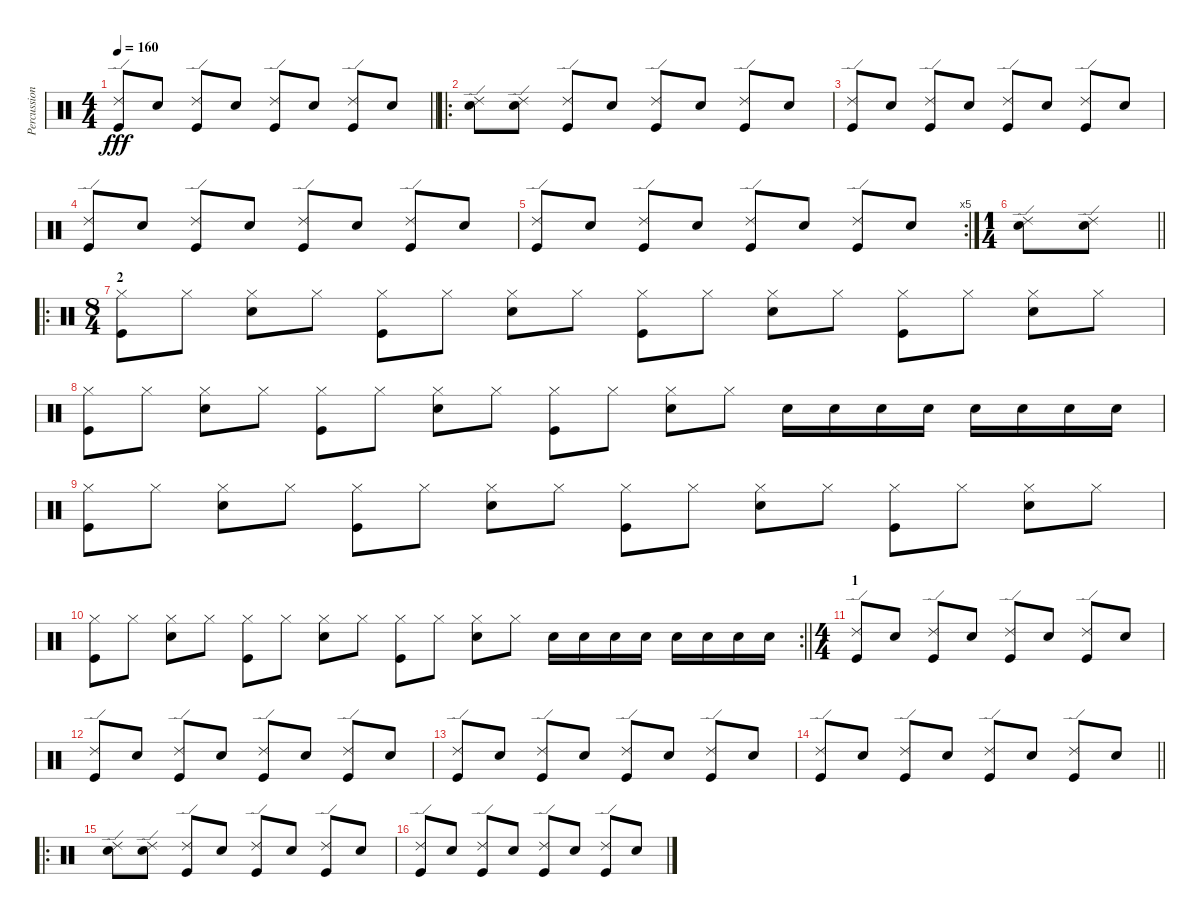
\track ("Percussion" "Percussion") {instrument percussion}
\staff {score}
\articulation defaults
\ts (4 4)
\tempo 160
\clef neutral
\barLineRight lightlight
\ks c
("Ride (edge) 2" "Kick (hit)").8{dy fff} "Snare (hit) 2".8 ("Ride (edge) 2" "Kick (hit)").8 "Snare (hit) 2".8 ("Ride (edge) 2" "Kick (hit)").8 "Snare (hit) 2".8 ("Ride (edge) 2" "Kick (hit)").8 "Snare (hit) 2".8 |
\ro
("Ride (edge) 2" "Snare (hit) 2").8 ("Ride (edge) 2" "Snare (hit) 2").8 ("Ride (edge) 2" "Kick (hit)").8 "Snare (hit) 2".8 ("Ride (edge) 2" "Kick (hit)").8 "Snare (hit) 2".8 ("Ride (edge) 2" "Kick (hit)").8 "Snare (hit) 2".8 |
("Ride (edge) 2" "Kick (hit)").8 "Snare (hit) 2".8 ("Ride (edge) 2" "Kick (hit)").8 "Snare (hit) 2".8 ("Ride (edge) 2" "Kick (hit)").8 "Snare (hit) 2".8 ("Ride (edge) 2" "Kick (hit)").8 "Snare (hit) 2".8 |
("Ride (edge) 2" "Kick (hit)").8 "Snare (hit) 2".8 ("Ride (edge) 2" "Kick (hit)").8 "Snare (hit) 2".8 ("Ride (edge) 2" "Kick (hit)").8 "Snare (hit) 2".8 ("Ride (edge) 2" "Kick (hit)").8 "Snare (hit) 2".8 |
\rc 5
("Ride (edge) 2" "Kick (hit)").8 "Snare (hit) 2".8 ("Ride (edge) 2" "Kick (hit)").8 "Snare (hit) 2".8 ("Ride (edge) 2" "Kick (hit)").8 "Snare (hit) 2".8 ("Ride (edge) 2" "Kick (hit)").8 "Snare (hit) 2".8 |
\ts (1 4)
\barLineRight lightlight
("Ride (edge) 2" "Snare (hit) 2").8 ("Ride (edge) 2" "Snare (hit) 2").8 |
\ro
\ts (8 4)
\section ("" "2")
("Hi-Hat (closed)" "Kick (hit)").8 "Hi-Hat (closed)".8 ("Hi-Hat (closed)" "Snare (hit) 2").8 "Hi-Hat (closed)".8 ("Hi-Hat (closed)" "Kick (hit)").8 "Hi-Hat (closed)".8 ("Hi-Hat (closed)" "Snare (hit) 2").8 "Hi-Hat (closed)".8 ("Hi-Hat (closed)" "Kick (hit)").8 "Hi-Hat (closed)".8 ("Hi-Hat (closed)" "Snare (hit) 2").8 "Hi-Hat (closed)".8 ("Hi-Hat (closed)" "Kick (hit)").8 "Hi-Hat (closed)".8 ("Hi-Hat (closed)" "Snare (hit) 2").8 "Hi-Hat (closed)".8 |
("Hi-Hat (closed)" "Kick (hit)").8 "Hi-Hat (closed)".8 ("Hi-Hat (closed)" "Snare (hit) 2").8 "Hi-Hat (closed)".8 ("Hi-Hat (closed)" "Kick (hit)").8 "Hi-Hat (closed)".8 ("Hi-Hat (closed)" "Snare (hit) 2").8 "Hi-Hat (closed)".8 ("Hi-Hat (closed)" "Kick (hit)").8 "Hi-Hat (closed)".8 ("Hi-Hat (closed)" "Snare (hit) 2").8 "Hi-Hat (closed)".8 "Snare (hit) 2".16 "Snare (hit) 2".16 "Snare (hit) 2".16 "Snare (hit) 2".16 "Snare (hit) 2".16 "Snare (hit) 2".16 "Snare (hit) 2".16 "Snare (hit) 2".16 |
("Hi-Hat (closed)" "Kick (hit)").8 "Hi-Hat (closed)".8 ("Hi-Hat (closed)" "Snare (hit) 2").8 "Hi-Hat (closed)".8 ("Hi-Hat (closed)" "Kick (hit)").8 "Hi-Hat (closed)".8 ("Hi-Hat (closed)" "Snare (hit) 2").8 "Hi-Hat (closed)".8 ("Hi-Hat (closed)" "Kick (hit)").8 "Hi-Hat (closed)".8 ("Hi-Hat (closed)" "Snare (hit) 2").8 "Hi-Hat (closed)".8 ("Hi-Hat (closed)" "Kick (hit)").8 "Hi-Hat (closed)".8 ("Hi-Hat (closed)" "Snare (hit) 2").8 "Hi-Hat (closed)".8 |
\rc 2
\barLineRight lightlight
("Hi-Hat (closed)" "Kick (hit)").8 "Hi-Hat (closed)".8 ("Hi-Hat (closed)" "Snare (hit) 2").8 "Hi-Hat (closed)".8 ("Hi-Hat (closed)" "Kick (hit)").8 "Hi-Hat (closed)".8 ("Hi-Hat (closed)" "Snare (hit) 2").8 "Hi-Hat (closed)".8 ("Hi-Hat (closed)" "Kick (hit)").8 "Hi-Hat (closed)".8 ("Hi-Hat (closed)" "Snare (hit) 2").8 "Hi-Hat (closed)".8 "Snare (hit) 2".16 "Snare (hit) 2".16 "Snare (hit) 2".16 "Snare (hit) 2".16 "Snare (hit) 2".16 "Snare (hit) 2".16 "Snare (hit) 2".16 "Snare (hit) 2".16 |
\ts (4 4)
\section ("" "1")
("Ride (edge) 2" "Kick (hit)").8 "Snare (hit) 2".8 ("Ride (edge) 2" "Kick (hit)").8 "Snare (hit) 2".8 ("Ride (edge) 2" "Kick (hit)").8 "Snare (hit) 2".8 ("Ride (edge) 2" "Kick (hit)").8 "Snare (hit) 2".8 |
("Ride (edge) 2" "Kick (hit)").8 "Snare (hit) 2".8 ("Ride (edge) 2" "Kick (hit)").8 "Snare (hit) 2".8 ("Ride (edge) 2" "Kick (hit)").8 "Snare (hit) 2".8 ("Ride (edge) 2" "Kick (hit)").8 "Snare (hit) 2".8 |
("Ride (edge) 2" "Kick (hit)").8 "Snare (hit) 2".8 ("Ride (edge) 2" "Kick (hit)").8 "Snare (hit) 2".8 ("Ride (edge) 2" "Kick (hit)").8 "Snare (hit) 2".8 ("Ride (edge) 2" "Kick (hit)").8 "Snare (hit) 2".8 |
\barLineRight lightlight
("Ride (edge) 2" "Kick (hit)").8 "Snare (hit) 2".8 ("Ride (edge) 2" "Kick (hit)").8 "Snare (hit) 2".8 ("Ride (edge) 2" "Kick (hit)").8 "Snare (hit) 2".8 ("Ride (edge) 2" "Kick (hit)").8 "Snare (hit) 2".8 |
\ro
("Ride (edge) 2" "Snare (hit) 2").8 ("Ride (edge) 2" "Snare (hit) 2").8 ("Ride (edge) 2" "Kick (hit)").8 "Snare (hit) 2".8 ("Ride (edge) 2" "Kick (hit)").8 "Snare (hit) 2".8 ("Ride (edge) 2" "Kick (hit)").8 "Snare (hit) 2".8 |
("Ride (edge) 2" "Kick (hit)").8 "Snare (hit) 2".8 ("Ride (edge) 2" "Kick (hit)").8 "Snare (hit) 2".8 ("Ride (edge) 2" "Kick (hit)").8 "Snare (hit) 2".8 ("Ride (edge) 2" "Kick (hit)").8 "Snare (hit) 2".8
